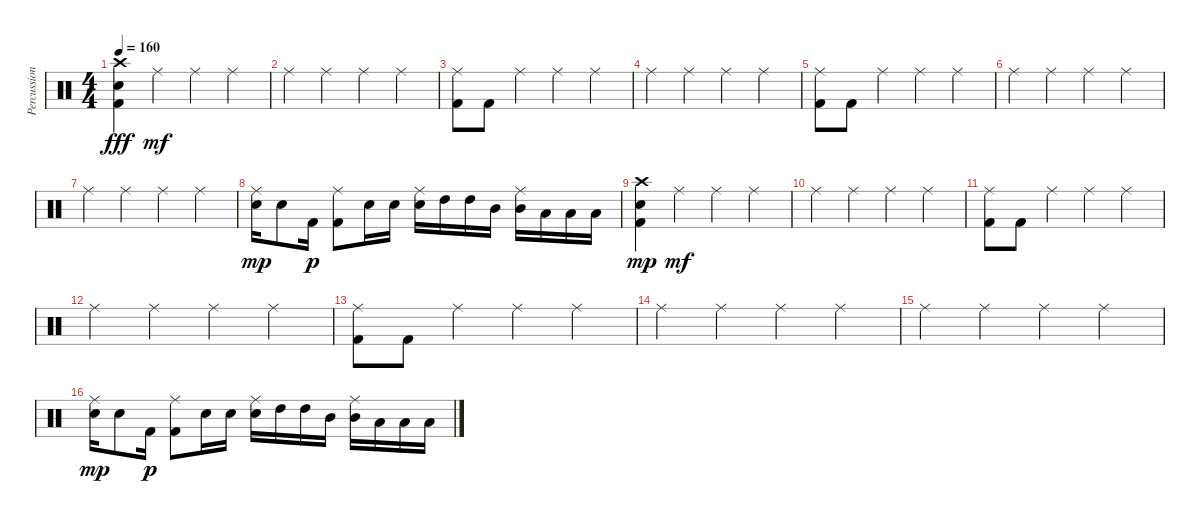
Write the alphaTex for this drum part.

\track ("Percussion" "Percussion") {instrument percussion}
\staff {score}
\articulation defaults
\ts (4 4)
\tempo 160
\clef neutral
\ks c
("Crash high (hit)" "Electric Snare (hit)" "Kick (hit) 2").4{dy fff} "Ride (middle)".4{dy mf} "Ride (middle)".4 "Ride (middle)".4 |
"Ride (middle)".4 "Ride (middle)".4 "Ride (middle)".4 "Ride (middle)".4 |
("Ride (middle)" "Kick (hit) 2").8 "Kick (hit) 2".8 "Ride (middle)".4 "Ride (middle)".4 "Ride (middle)".4 |
"Ride (middle)".4 "Ride (middle)".4 "Ride (middle)".4 "Ride (middle)".4 |
("Ride (middle)" "Kick (hit) 2").8 "Kick (hit) 2".8 "Ride (middle)".4 "Ride (middle)".4 "Ride (middle)".4 |
"Ride (middle)".4 "Ride (middle)".4 "Ride (middle)".4 "Ride (middle)".4 |
"Ride (middle)".4 "Ride (middle)".4 "Ride (middle)".4 "Ride (middle)".4 |
("Ride (middle)" "Electric Snare (hit)").16{dy mp} "Electric Snare (hit)".8 "Kick (hit) 2".16{dy p} ("Ride (middle)" "Kick (hit) 2").8 "Electric Snare (hit)".16 "Electric Snare (hit)".16 ("Ride (middle)" "Electric Snare (hit)").16 "High Tom (hit)".16 "High Tom (hit)".16 "Mid Tom (hit)".16 ("Ride (middle)" "Mid Tom (hit)").16 "Low Tom (hit)".16 "Low Tom (hit)".16 "Low Tom (hit)".16 |
("Crash high (hit)" "Electric Snare (hit)" "Kick (hit) 2").4{dy mp} "Ride (middle)".4{dy mf} "Ride (middle)".4 "Ride (middle)".4 |
"Ride (middle)".4 "Ride (middle)".4 "Ride (middle)".4 "Ride (middle)".4 |
("Ride (middle)" "Kick (hit) 2").8 "Kick (hit) 2".8 "Ride (middle)".4 "Ride (middle)".4 "Ride (middle)".4 |
"Ride (middle)".4 "Ride (middle)".4 "Ride (middle)".4 "Ride (middle)".4 |
("Ride (middle)" "Kick (hit) 2").8 "Kick (hit) 2".8 "Ride (middle)".4 "Ride (middle)".4 "Ride (middle)".4 |
"Ride (middle)".4 "Ride (middle)".4 "Ride (middle)".4 "Ride (middle)".4 |
"Ride (middle)".4 "Ride (middle)".4 "Ride (middle)".4 "Ride (middle)".4 |
("Ride (middle)" "Electric Snare (hit)").16{dy mp} "Electric Snare (hit)".8 "Kick (hit) 2".16{dy p} ("Ride (middle)" "Kick (hit) 2").8 "Electric Snare (hit)".16 "Electric Snare (hit)".16 ("Ride (middle)" "Electric Snare (hit)").16 "High Tom (hit)".16 "High Tom (hit)".16 "Mid Tom (hit)".16 ("Ride (middle)" "Mid Tom (hit)").16 "Low Tom (hit)".16 "Low Tom (hit)".16 "Low Tom (hit)".16
